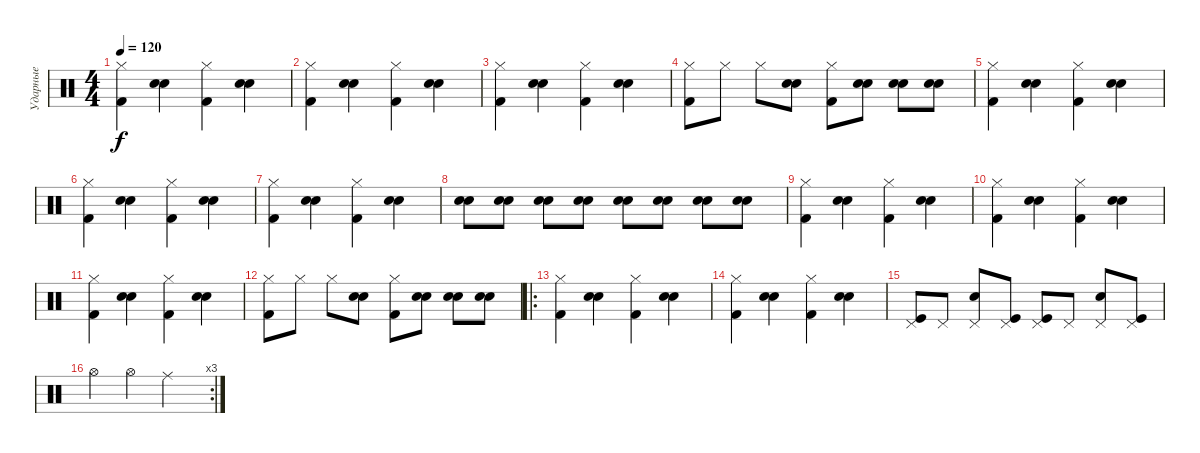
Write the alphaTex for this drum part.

\track ("Ударные" "Ударные") {instrument percussion}
\staff {score}
\articulation defaults
\ts (4 4)
\tempo 120
\clef neutral
\ks c
("Hi-Hat (closed)" "Kick (hit) 2").4{dy f} ("Snare (hit) 2" "Electric Snare (hit)").4 ("Hi-Hat (closed)" "Kick (hit) 2").4 ("Snare (hit) 2" "Electric Snare (hit)").4 |
("Hi-Hat (closed)" "Kick (hit) 2").4 ("Snare (hit) 2" "Electric Snare (hit)").4 ("Hi-Hat (closed)" "Kick (hit) 2").4 ("Snare (hit) 2" "Electric Snare (hit)").4 |
("Hi-Hat (closed)" "Kick (hit) 2").4 ("Snare (hit) 2" "Electric Snare (hit)").4 ("Hi-Hat (closed)" "Kick (hit) 2").4 ("Snare (hit) 2" "Electric Snare (hit)").4 |
("Hi-Hat (closed)" "Kick (hit) 2").8 "Hi-Hat (closed)".8 "Hi-Hat (closed)".8 ("Electric Snare (hit)" "Snare (hit) 2").8 ("Hi-Hat (closed)" "Kick (hit) 2").8 ("Electric Snare (hit)" "Snare (hit) 2").8 ("Electric Snare (hit)" "Snare (hit) 2").8 ("Electric Snare (hit)" "Snare (hit) 2").8 |
("Hi-Hat (closed)" "Kick (hit) 2").4 ("Snare (hit) 2" "Electric Snare (hit)").4 ("Hi-Hat (closed)" "Kick (hit) 2").4 ("Snare (hit) 2" "Electric Snare (hit)").4 |
("Hi-Hat (closed)" "Kick (hit) 2").4 ("Snare (hit) 2" "Electric Snare (hit)").4 ("Hi-Hat (closed)" "Kick (hit) 2").4 ("Snare (hit) 2" "Electric Snare (hit)").4 |
("Hi-Hat (closed)" "Kick (hit) 2").4 ("Snare (hit) 2" "Electric Snare (hit)").4 ("Hi-Hat (closed)" "Kick (hit) 2").4 ("Snare (hit) 2" "Electric Snare (hit)").4 |
("Electric Snare (hit)" "Snare (hit) 2").8 ("Electric Snare (hit)" "Snare (hit) 2").8 ("Electric Snare (hit)" "Snare (hit) 2").8 ("Electric Snare (hit)" "Snare (hit) 2").8 ("Electric Snare (hit)" "Snare (hit) 2").8 ("Electric Snare (hit)" "Snare (hit) 2").8 ("Electric Snare (hit)" "Snare (hit) 2").8 ("Electric Snare (hit)" "Snare (hit) 2").8 |
("Hi-Hat (closed)" "Kick (hit) 2").4 ("Snare (hit) 2" "Electric Snare (hit)").4 ("Hi-Hat (closed)" "Kick (hit) 2").4 ("Snare (hit) 2" "Electric Snare (hit)").4 |
("Hi-Hat (closed)" "Kick (hit) 2").4 ("Snare (hit) 2" "Electric Snare (hit)").4 ("Hi-Hat (closed)" "Kick (hit) 2").4 ("Snare (hit) 2" "Electric Snare (hit)").4 |
("Hi-Hat (closed)" "Kick (hit) 2").4 ("Snare (hit) 2" "Electric Snare (hit)").4 ("Hi-Hat (closed)" "Kick (hit) 2").4 ("Snare (hit) 2" "Electric Snare (hit)").4 |
("Hi-Hat (closed)" "Kick (hit) 2").8 "Hi-Hat (closed)".8 "Hi-Hat (closed)".8 ("Electric Snare (hit)" "Snare (hit) 2").8 ("Hi-Hat (closed)" "Kick (hit) 2").8 ("Electric Snare (hit)" "Snare (hit) 2").8 ("Electric Snare (hit)" "Snare (hit) 2").8 ("Electric Snare (hit)" "Snare (hit) 2").8 |
\ro
("Hi-Hat (closed)" "Kick (hit) 2").4 ("Snare (hit) 2" "Electric Snare (hit)").4 ("Hi-Hat (closed)" "Kick (hit) 2").4 ("Snare (hit) 2" "Electric Snare (hit)").4 |
("Hi-Hat (closed)" "Kick (hit) 2").4 ("Snare (hit) 2" "Electric Snare (hit)").4 ("Hi-Hat (closed)" "Kick (hit) 2").4 ("Snare (hit) 2" "Electric Snare (hit)").4 |
("Kick (hit)" "Pedal Hi-Hat (hit)").8 "Pedal Hi-Hat (hit)".8 ("Pedal Hi-Hat (hit)" "Snare (hit) 2").8 ("Kick (hit)" "Pedal Hi-Hat (hit)").8 ("Kick (hit)" "Pedal Hi-Hat (hit)").8 "Pedal Hi-Hat (hit)".8 ("Pedal Hi-Hat (hit)" "Snare (hit) 2").8 ("Kick (hit)" "Pedal Hi-Hat (hit)").8 |
\rc 3 "Hi-Hat (open)".4 "Hi-Hat (open)".4 "Ride (middle)".2
